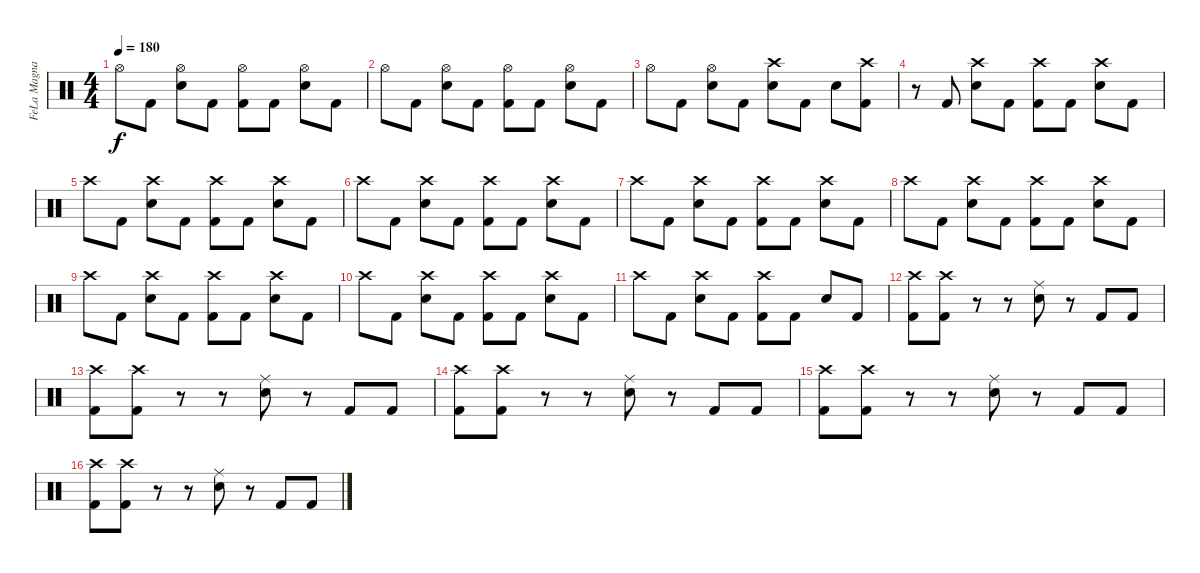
\track ("FeLa Magnani" "FeLa Magna") {instrument percussion}
\staff {score}
\articulation defaults
\ts (4 4)
\tempo 180
\clef neutral
\ks c "Hi-Hat (open)".8{dy f} "Kick (hit) 2".8
("Hi-Hat (open)" "Electric Snare (hit)").8 "Kick (hit) 2".8 ("Hi-Hat (open)" "Kick (hit) 2").8 "Kick (hit) 2".8 ("Hi-Hat (open)" "Electric Snare (hit)").8 "Kick (hit) 2".8 |
"Hi-Hat (open)".8 "Kick (hit) 2".8 ("Hi-Hat (open)" "Electric Snare (hit)").8 "Kick (hit) 2".8 ("Hi-Hat (open)" "Kick (hit) 2").8 "Kick (hit) 2".8 ("Hi-Hat (open)" "Electric Snare (hit)").8 "Kick (hit) 2".8 |
"Hi-Hat (open)".8 "Kick (hit) 2".8 ("Hi-Hat (open)" "Electric Snare (hit)").8 "Kick (hit) 2".8 ("Crash high (hit)" "Electric Snare (hit)").8 "Kick (hit) 2".8 "Electric Snare (hit)".8 ("Crash high (hit)" "Kick (hit) 2").8 |
r.8 "Kick (hit) 2".8 ("Crash high (hit)" "Electric Snare (hit)").8 "Kick (hit) 2".8 ("Crash high (hit)" "Kick (hit) 2").8 "Kick (hit) 2".8 ("Crash high (hit)" "Electric Snare (hit)").8 "Kick (hit) 2".8 |
"Crash high (hit)".8 "Kick (hit) 2".8 ("Crash high (hit)" "Electric Snare (hit)").8 "Kick (hit) 2".8 ("Crash high (hit)" "Kick (hit) 2").8 "Kick (hit) 2".8 ("Crash high (hit)" "Electric Snare (hit)").8 "Kick (hit) 2".8 |
"Crash high (hit)".8 "Kick (hit) 2".8 ("Crash high (hit)" "Electric Snare (hit)").8 "Kick (hit) 2".8 ("Crash high (hit)" "Kick (hit) 2").8 "Kick (hit) 2".8 ("Crash high (hit)" "Electric Snare (hit)").8 "Kick (hit) 2".8 |
"Crash high (hit)".8 "Kick (hit) 2".8 ("Crash high (hit)" "Electric Snare (hit)").8 "Kick (hit) 2".8 ("Crash high (hit)" "Kick (hit) 2").8 "Kick (hit) 2".8 ("Crash high (hit)" "Electric Snare (hit)").8 "Kick (hit) 2".8 |
"Crash high (hit)".8 "Kick (hit) 2".8 ("Crash high (hit)" "Electric Snare (hit)").8 "Kick (hit) 2".8 ("Crash high (hit)" "Kick (hit) 2").8 "Kick (hit) 2".8 ("Crash high (hit)" "Electric Snare (hit)").8 "Kick (hit) 2".8 |
"Crash high (hit)".8 "Kick (hit) 2".8 ("Crash high (hit)" "Electric Snare (hit)").8 "Kick (hit) 2".8 ("Crash high (hit)" "Kick (hit) 2").8 "Kick (hit) 2".8 ("Crash high (hit)" "Electric Snare (hit)").8 "Kick (hit) 2".8 |
"Crash high (hit)".8 "Kick (hit) 2".8 ("Crash high (hit)" "Electric Snare (hit)").8 "Kick (hit) 2".8 ("Crash high (hit)" "Kick (hit) 2").8 "Kick (hit) 2".8 ("Crash high (hit)" "Electric Snare (hit)").8 "Kick (hit) 2".8 |
"Crash high (hit)".8 "Kick (hit) 2".8 ("Crash high (hit)" "Electric Snare (hit)").8 "Kick (hit) 2".8 ("Crash high (hit)" "Kick (hit) 2").8 "Kick (hit) 2".8 "Electric Snare (hit)".8 "Kick (hit) 2".8 |
("Crash high (hit)" "Kick (hit) 2").8 ("Crash high (hit)" "Kick (hit) 2").8 r.8 r.8 ("Ride (middle)" "Electric Snare (hit)").8 r.8 "Kick (hit) 2".8 "Kick (hit) 2".8 |
("Crash high (hit)" "Kick (hit) 2").8 ("Crash high (hit)" "Kick (hit) 2").8 r.8 r.8 ("Ride (middle)" "Electric Snare (hit)").8 r.8 "Kick (hit) 2".8 "Kick (hit) 2".8 |
("Crash high (hit)" "Kick (hit) 2").8 ("Crash high (hit)" "Kick (hit) 2").8 r.8 r.8 ("Ride (middle)" "Electric Snare (hit)").8 r.8 "Kick (hit) 2".8 "Kick (hit) 2".8 |
("Crash high (hit)" "Kick (hit) 2").8 ("Crash high (hit)" "Kick (hit) 2").8 r.8 r.8 ("Ride (middle)" "Electric Snare (hit)").8 r.8 "Kick (hit) 2".8 "Kick (hit) 2".8 |
("Crash high (hit)" "Kick (hit) 2").8 ("Crash high (hit)" "Kick (hit) 2").8 r.8 r.8 ("Ride (middle)" "Electric Snare (hit)").8 r.8 "Kick (hit) 2".8 "Kick (hit) 2".8
